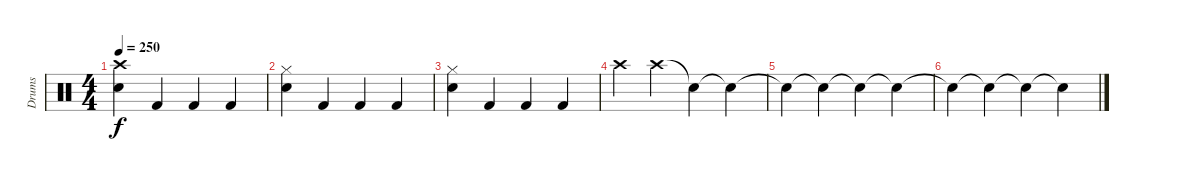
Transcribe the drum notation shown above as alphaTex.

\track ("Drums" "Drums") {instrument percussion}
\staff {score}
\articulation defaults
\ts (4 4)
\tempo 250
\clef neutral
\ks c
("Crash high (hit)" "Snare (hit) 2").4{dy f} "Kick (hit) 2".4 "Kick (hit) 2".4 "Kick (hit) 2".4 |
("Hi-Hat (closed)" "Snare (hit) 2").4 "Kick (hit) 2".4 "Kick (hit) 2".4 "Kick (hit) 2".4 |
("Hi-Hat (closed)" "Snare (hit) 2").4 "Kick (hit) 2".4 "Kick (hit) 2".4 "Kick (hit) 2".4 |
"Crash high (hit)".4 "Crash high (hit)".4 "Snare (hit)"{t}.4 "Snare (hit)"{t}.4 |
"Snare (hit)"{t}.4 "Snare (hit)"{t}.4 "Snare (hit)"{t}.4 "Snare (hit)"{t}.4 |
"Snare (hit)"{t}.4 "Snare (hit)"{t}.4 "Snare (hit)"{t}.4 "Snare (hit)"{t}.4
